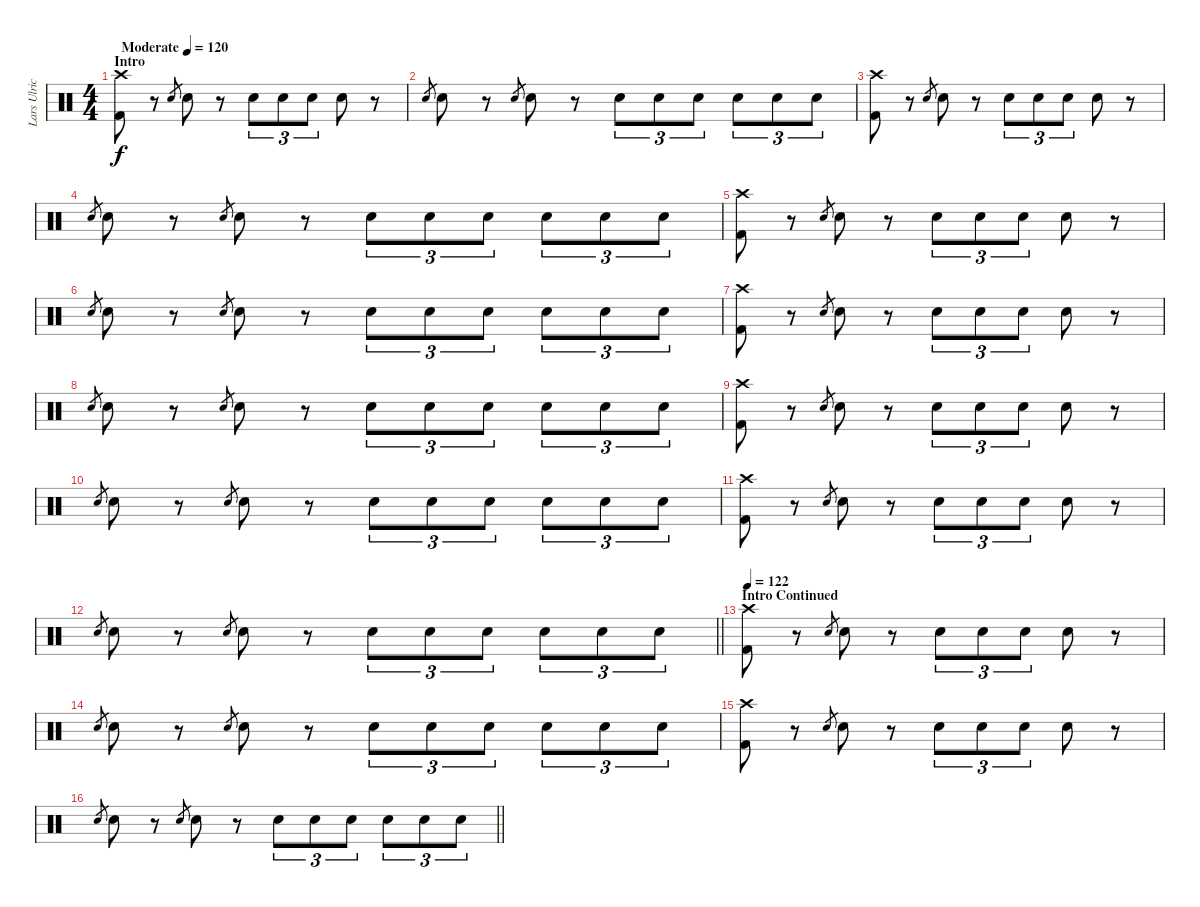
\track ("Lars Ulrich" "Lars Ulric") {instrument percussion}
\staff {score}
\articulation defaults
\ts (4 4)
\section ("" "Intro")
\tempo (120 "Moderate")
\clef neutral
\ks c
("Crash high (hit)" "Kick (hit) 2").8{dy f} r.8 "Snare (hit) 2".8{gr} "Snare (hit) 2".8 r.8 "Snare (hit) 2".8{tu (3 2)} "Snare (hit) 2".8{tu (3 2)} "Snare (hit) 2".8{tu (3 2)} "Snare (hit) 2".8 r.8 |
"Snare (hit) 2".8{gr} "Snare (hit) 2".8 r.8 "Snare (hit) 2".8{gr} "Snare (hit) 2".8 r.8 "Snare (hit) 2".8{tu (3 2)} "Snare (hit) 2".8{tu (3 2)} "Snare (hit) 2".8{tu (3 2)} "Snare (hit) 2".8{tu (3 2)} "Snare (hit) 2".8{tu (3 2)} "Snare (hit) 2".8{tu (3 2)} |
("Crash high (hit)" "Kick (hit) 2").8 r.8 "Snare (hit) 2".8{gr} "Snare (hit) 2".8 r.8 "Snare (hit) 2".8{tu (3 2)} "Snare (hit) 2".8{tu (3 2)} "Snare (hit) 2".8{tu (3 2)} "Snare (hit) 2".8 r.8 |
"Snare (hit) 2".8{gr} "Snare (hit) 2".8 r.8 "Snare (hit) 2".8{gr} "Snare (hit) 2".8 r.8 "Snare (hit) 2".8{tu (3 2)} "Snare (hit) 2".8{tu (3 2)} "Snare (hit) 2".8{tu (3 2)} "Snare (hit) 2".8{tu (3 2)} "Snare (hit) 2".8{tu (3 2)} "Snare (hit) 2".8{tu (3 2)} |
("Crash high (hit)" "Kick (hit) 2").8 r.8 "Snare (hit) 2".8{gr} "Snare (hit) 2".8 r.8 "Snare (hit) 2".8{tu (3 2)} "Snare (hit) 2".8{tu (3 2)} "Snare (hit) 2".8{tu (3 2)} "Snare (hit) 2".8 r.8 |
"Snare (hit) 2".8{gr} "Snare (hit) 2".8 r.8 "Snare (hit) 2".8{gr} "Snare (hit) 2".8 r.8 "Snare (hit) 2".8{tu (3 2)} "Snare (hit) 2".8{tu (3 2)} "Snare (hit) 2".8{tu (3 2)} "Snare (hit) 2".8{tu (3 2)} "Snare (hit) 2".8{tu (3 2)} "Snare (hit) 2".8{tu (3 2)} |
("Crash high (hit)" "Kick (hit) 2").8 r.8 "Snare (hit) 2".8{gr} "Snare (hit) 2".8 r.8 "Snare (hit) 2".8{tu (3 2)} "Snare (hit) 2".8{tu (3 2)} "Snare (hit) 2".8{tu (3 2)} "Snare (hit) 2".8 r.8 |
"Snare (hit) 2".8{gr} "Snare (hit) 2".8 r.8 "Snare (hit) 2".8{gr} "Snare (hit) 2".8 r.8 "Snare (hit) 2".8{tu (3 2)} "Snare (hit) 2".8{tu (3 2)} "Snare (hit) 2".8{tu (3 2)} "Snare (hit) 2".8{tu (3 2)} "Snare (hit) 2".8{tu (3 2)} "Snare (hit) 2".8{tu (3 2)} |
("Crash high (hit)" "Kick (hit) 2").8 r.8 "Snare (hit) 2".8{gr} "Snare (hit) 2".8 r.8 "Snare (hit) 2".8{tu (3 2)} "Snare (hit) 2".8{tu (3 2)} "Snare (hit) 2".8{tu (3 2)} "Snare (hit) 2".8 r.8 |
"Snare (hit) 2".8{gr} "Snare (hit) 2".8 r.8 "Snare (hit) 2".8{gr} "Snare (hit) 2".8 r.8 "Snare (hit) 2".8{tu (3 2)} "Snare (hit) 2".8{tu (3 2)} "Snare (hit) 2".8{tu (3 2)} "Snare (hit) 2".8{tu (3 2)} "Snare (hit) 2".8{tu (3 2)} "Snare (hit) 2".8{tu (3 2)} |
("Crash high (hit)" "Kick (hit) 2").8 r.8 "Snare (hit) 2".8{gr} "Snare (hit) 2".8 r.8 "Snare (hit) 2".8{tu (3 2)} "Snare (hit) 2".8{tu (3 2)} "Snare (hit) 2".8{tu (3 2)} "Snare (hit) 2".8 r.8 |
\barLineRight lightlight "Snare (hit) 2".8{gr} "Snare (hit) 2".8
r.8 "Snare (hit) 2".8{gr} "Snare (hit) 2".8 r.8 "Snare (hit) 2".8{tu (3 2)} "Snare (hit) 2".8{tu (3 2)} "Snare (hit) 2".8{tu (3 2)} "Snare (hit) 2".8{tu (3 2)} "Snare (hit) 2".8{tu (3 2)} "Snare (hit) 2".8{tu (3 2)} |
\section ("" "Intro Continued")
\tempo 122
("Crash high (hit)" "Kick (hit) 2").8 r.8 "Snare (hit) 2".8{gr} "Snare (hit) 2".8 r.8 "Snare (hit) 2".8{tu (3 2)} "Snare (hit) 2".8{tu (3 2)} "Snare (hit) 2".8{tu (3 2)} "Snare (hit) 2".8 r.8 |
"Snare (hit) 2".8{gr} "Snare (hit) 2".8 r.8 "Snare (hit) 2".8{gr} "Snare (hit) 2".8 r.8 "Snare (hit) 2".8{tu (3 2)} "Snare (hit) 2".8{tu (3 2)} "Snare (hit) 2".8{tu (3 2)} "Snare (hit) 2".8{tu (3 2)} "Snare (hit) 2".8{tu (3 2)} "Snare (hit) 2".8{tu (3 2)} |
("Crash high (hit)" "Kick (hit) 2").8 r.8 "Snare (hit) 2".8{gr} "Snare (hit) 2".8 r.8 "Snare (hit) 2".8{tu (3 2)} "Snare (hit) 2".8{tu (3 2)} "Snare (hit) 2".8{tu (3 2)} "Snare (hit) 2".8 r.8 |
\barLineRight lightlight "Snare (hit) 2".8{gr} "Snare (hit) 2".8
r.8 "Snare (hit) 2".8{gr} "Snare (hit) 2".8 r.8 "Snare (hit) 2".8{tu (3 2)} "Snare (hit) 2".8{tu (3 2)} "Snare (hit) 2".8{tu (3 2)} "Snare (hit) 2".8{tu (3 2)} "Snare (hit) 2".8{tu (3 2)} "Snare (hit) 2".8{tu (3 2)}
